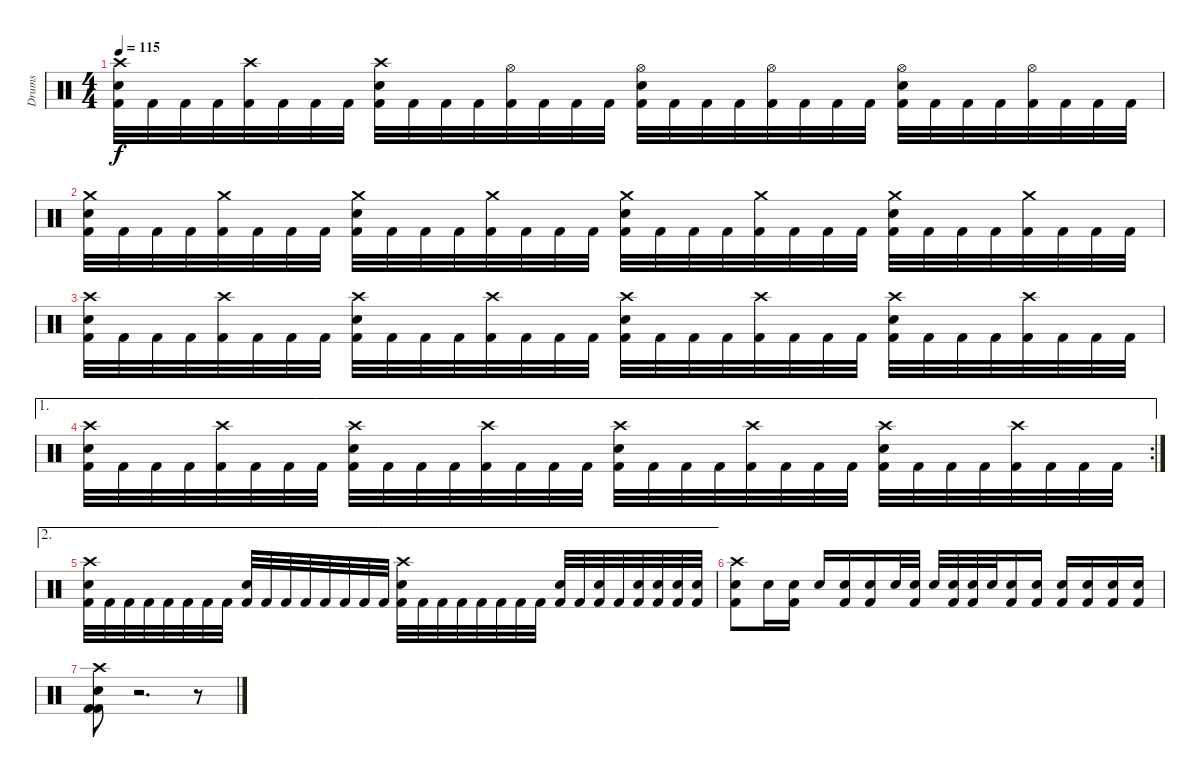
\track ("Drums" "Drums") {instrument percussion}
\staff {score}
\articulation defaults
\ts (4 4)
\tempo 115
\clef neutral
\ks c
("Crash high (hit)" "Electric Snare (hit)" "Kick (hit) 2").32{dy f} "Kick (hit) 2".32 "Kick (hit) 2".32 "Kick (hit) 2".32 ("Crash high (hit)" "Kick (hit) 2").32 "Kick (hit) 2".32 "Kick (hit) 2".32 "Kick (hit) 2".32 ("Crash high (hit)" "Electric Snare (hit)" "Kick (hit) 2").32 "Kick (hit) 2".32 "Kick (hit) 2".32 "Kick (hit) 2".32 ("Hi-Hat (open)" "Kick (hit) 2").32 "Kick (hit) 2".32 "Kick (hit) 2".32 "Kick (hit) 2".32 ("Hi-Hat (open)" "Electric Snare (hit)" "Kick (hit) 2").32 "Kick (hit) 2".32 "Kick (hit) 2".32 "Kick (hit) 2".32 ("Hi-Hat (open)" "Kick (hit) 2").32 "Kick (hit) 2".32 "Kick (hit) 2".32 "Kick (hit) 2".32 ("Hi-Hat (open)" "Electric Snare (hit)" "Kick (hit) 2").32 "Kick (hit) 2".32 "Kick (hit) 2".32 "Kick (hit) 2".32 ("Hi-Hat (open)" "Kick (hit) 2").32 "Kick (hit) 2".32 "Kick (hit) 2".32 "Kick (hit) 2".32 |
("Crash medium (hit)" "Electric Snare (hit)" "Kick (hit) 2").32 "Kick (hit) 2".32 "Kick (hit) 2".32 "Kick (hit) 2".32 ("Crash medium (hit)" "Kick (hit) 2").32 "Kick (hit) 2".32 "Kick (hit) 2".32 "Kick (hit) 2".32 ("Crash medium (hit)" "Electric Snare (hit)" "Kick (hit) 2").32 "Kick (hit) 2".32 "Kick (hit) 2".32 "Kick (hit) 2".32 ("Crash medium (hit)" "Kick (hit) 2").32 "Kick (hit) 2".32 "Kick (hit) 2".32 "Kick (hit) 2".32 ("Crash medium (hit)" "Electric Snare (hit)" "Kick (hit) 2").32 "Kick (hit) 2".32 "Kick (hit) 2".32 "Kick (hit) 2".32 ("Crash medium (hit)" "Kick (hit) 2").32 "Kick (hit) 2".32 "Kick (hit) 2".32 "Kick (hit) 2".32 ("Crash medium (hit)" "Electric Snare (hit)" "Kick (hit) 2").32 "Kick (hit) 2".32 "Kick (hit) 2".32 "Kick (hit) 2".32 ("Crash medium (hit)" "Kick (hit) 2").32 "Kick (hit) 2".32 "Kick (hit) 2".32 "Kick (hit) 2".32 |
("Crash high (hit)" "Electric Snare (hit)" "Kick (hit) 2").32 "Kick (hit) 2".32 "Kick (hit) 2".32 "Kick (hit) 2".32 ("Crash high (hit)" "Kick (hit) 2").32 "Kick (hit) 2".32 "Kick (hit) 2".32 "Kick (hit) 2".32 ("Crash high (hit)" "Electric Snare (hit)" "Kick (hit) 2").32 "Kick (hit) 2".32 "Kick (hit) 2".32 "Kick (hit) 2".32 ("Crash high (hit)" "Kick (hit) 2").32 "Kick (hit) 2".32 "Kick (hit) 2".32 "Kick (hit) 2".32 ("Crash high (hit)" "Electric Snare (hit)" "Kick (hit) 2").32 "Kick (hit) 2".32 "Kick (hit) 2".32 "Kick (hit) 2".32 ("Crash high (hit)" "Kick (hit) 2").32 "Kick (hit) 2".32 "Kick (hit) 2".32 "Kick (hit) 2".32 ("Crash high (hit)" "Electric Snare (hit)" "Kick (hit) 2").32 "Kick (hit) 2".32 "Kick (hit) 2".32 "Kick (hit) 2".32 ("Crash high (hit)" "Kick (hit) 2").32 "Kick (hit) 2".32 "Kick (hit) 2".32 "Kick (hit) 2".32 |
\ae 1
\rc 2
("Crash high (hit)" "Electric Snare (hit)" "Kick (hit) 2").32 "Kick (hit) 2".32 "Kick (hit) 2".32 "Kick (hit) 2".32 ("Crash high (hit)" "Kick (hit) 2").32 "Kick (hit) 2".32 "Kick (hit) 2".32 "Kick (hit) 2".32 ("Crash high (hit)" "Electric Snare (hit)" "Kick (hit) 2").32 "Kick (hit) 2".32 "Kick (hit) 2".32 "Kick (hit) 2".32 ("Crash high (hit)" "Kick (hit) 2").32 "Kick (hit) 2".32 "Kick (hit) 2".32 "Kick (hit) 2".32 ("Crash high (hit)" "Electric Snare (hit)" "Kick (hit) 2").32 "Kick (hit) 2".32 "Kick (hit) 2".32 "Kick (hit) 2".32 ("Crash high (hit)" "Kick (hit) 2").32 "Kick (hit) 2".32 "Kick (hit) 2".32 "Kick (hit) 2".32 ("Crash high (hit)" "Electric Snare (hit)" "Kick (hit) 2").32 "Kick (hit) 2".32 "Kick (hit) 2".32 "Kick (hit) 2".32 ("Crash high (hit)" "Kick (hit) 2").32 "Kick (hit) 2".32 "Kick (hit) 2".32 "Kick (hit) 2".32 |
\ae 2
("Crash high (hit)" "Electric Snare (hit)" "Kick (hit) 2").32 "Kick (hit) 2".32 "Kick (hit) 2".32 "Kick (hit) 2".32 "Kick (hit) 2".32 "Kick (hit) 2".32 "Kick (hit) 2".32 "Kick (hit) 2".32 ("Electric Snare (hit)" "Kick (hit) 2").32 "Kick (hit) 2".32 "Kick (hit) 2".32 "Kick (hit) 2".32 "Kick (hit) 2".32 "Kick (hit) 2".32 "Kick (hit) 2".32 "Kick (hit) 2".32 ("Crash high (hit)" "Electric Snare (hit)" "Kick (hit) 2").32 "Kick (hit) 2".32 "Kick (hit) 2".32 "Kick (hit) 2".32 "Kick (hit) 2".32 "Kick (hit) 2".32 "Kick (hit) 2".32 "Kick (hit) 2".32 ("Electric Snare (hit)" "Kick (hit) 2").32 "Kick (hit) 2".32 ("Electric Snare (hit)" "Kick (hit) 2").32 "Kick (hit) 2".32 ("Electric Snare (hit)" "Kick (hit) 2").32 ("Electric Snare (hit)" "Kick (hit) 2").32 ("Electric Snare (hit)" "Kick (hit) 2").32 ("Electric Snare (hit)" "Kick (hit) 2").32 |
("Crash high (hit)" "Electric Snare (hit)" "Kick (hit) 2").8 "Electric Snare (hit)".16 ("Electric Snare (hit)" "Kick (hit) 2").16 "Electric Snare (hit)".16 ("Electric Snare (hit)" "Kick (hit) 2").16 ("Electric Snare (hit)" "Kick (hit) 2").16 "Electric Snare (hit)".32 ("Electric Snare (hit)" "Kick (hit) 2").32 "Electric Snare (hit)".32 ("Electric Snare (hit)" "Kick (hit) 2").32 ("Electric Snare (hit)" "Kick (hit) 2").32 "Electric Snare (hit)".32 ("Electric Snare (hit)" "Kick (hit) 2").16 ("Electric Snare (hit)" "Kick (hit) 2").16 ("Electric Snare (hit)" "Kick (hit) 2").16 ("Electric Snare (hit)" "Kick (hit) 2").16 ("Electric Snare (hit)" "Kick (hit) 2").16 ("Electric Snare (hit)" "Kick (hit) 2").16 |
("Crash high (hit)" "Electric Snare (hit)" "Kick (hit) 2" "Kick (hit) 2").8 r.2{d} r.8
